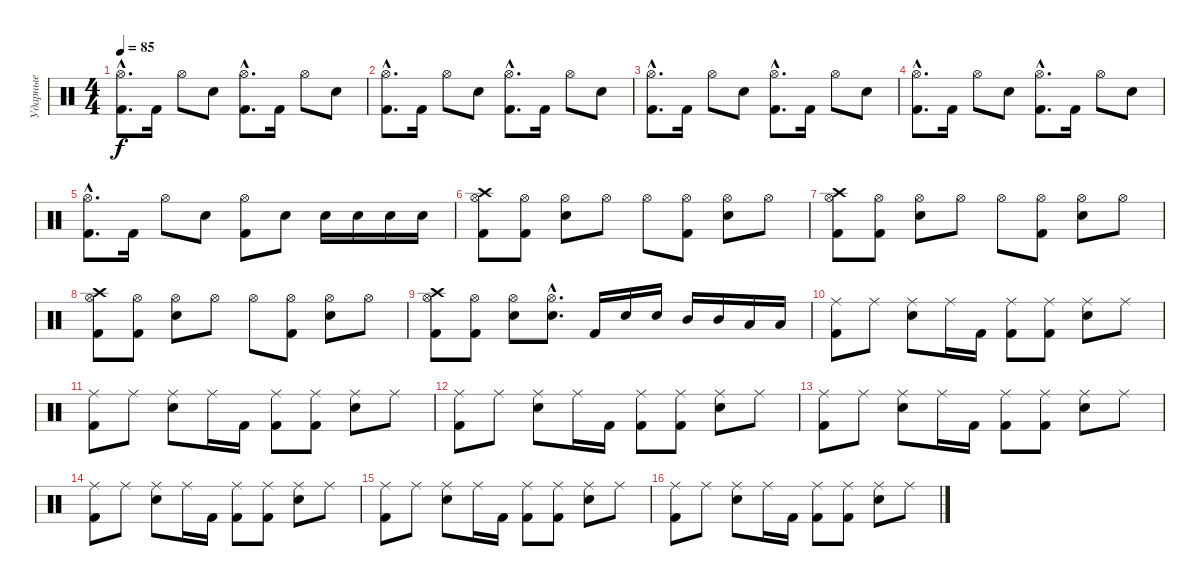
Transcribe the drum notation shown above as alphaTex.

\track ("Ударные" "Ударные") {instrument percussion}
\staff {score}
\articulation defaults
\ts (4 4)
\tempo 85
\clef neutral
\ks c
("Hi-Hat (open)"{hac} "Kick (hit) 2"{hac}).8{d dy f} "Kick (hit) 2".16 "Hi-Hat (open)".8 "Snare (hit) 2".8 ("Hi-Hat (open)"{hac} "Kick (hit) 2"{hac}).8{d} "Kick (hit) 2".16 "Hi-Hat (open)".8 "Snare (hit) 2".8 |
("Hi-Hat (open)"{hac} "Kick (hit) 2"{hac}).8{d} "Kick (hit) 2".16 "Hi-Hat (open)".8 "Snare (hit) 2".8 ("Hi-Hat (open)"{hac} "Kick (hit) 2"{hac}).8{d} "Kick (hit) 2".16 "Hi-Hat (open)".8 "Snare (hit) 2".8 |
("Hi-Hat (open)"{hac} "Kick (hit) 2"{hac}).8{d} "Kick (hit) 2".16 "Hi-Hat (open)".8 "Snare (hit) 2".8 ("Hi-Hat (open)"{hac} "Kick (hit) 2"{hac}).8{d} "Kick (hit) 2".16 "Hi-Hat (open)".8 "Snare (hit) 2".8 |
("Hi-Hat (open)"{hac} "Kick (hit) 2"{hac}).8{d} "Kick (hit) 2".16 "Hi-Hat (open)".8 "Snare (hit) 2".8 ("Hi-Hat (open)"{hac} "Kick (hit) 2"{hac}).8{d} "Kick (hit) 2".16 "Hi-Hat (open)".8 "Snare (hit) 2".8 |
("Hi-Hat (open)"{hac} "Kick (hit) 2"{hac}).8{d} "Kick (hit) 2".16 "Hi-Hat (open)".8 "Snare (hit) 2".8 ("Hi-Hat (open)" "Kick (hit) 2").8 "Snare (hit) 2".8 "Snare (hit) 2".16 "Snare (hit) 2".16 "Snare (hit) 2".16 "Snare (hit) 2".16 |
("Hi-Hat (open)" "Crash high (hit)" "Kick (hit) 2").8 ("Hi-Hat (open)" "Kick (hit) 2").8 ("Hi-Hat (open)" "Snare (hit) 2").8 "Hi-Hat (open)".8 "Hi-Hat (open)".8 ("Hi-Hat (open)" "Kick (hit) 2").8 ("Hi-Hat (open)" "Snare (hit) 2").8 "Hi-Hat (open)".8 |
("Hi-Hat (open)" "Crash high (hit)" "Kick (hit) 2").8 ("Hi-Hat (open)" "Kick (hit) 2").8 ("Hi-Hat (open)" "Snare (hit) 2").8 "Hi-Hat (open)".8 "Hi-Hat (open)".8 ("Hi-Hat (open)" "Kick (hit) 2").8 ("Hi-Hat (open)" "Snare (hit) 2").8 "Hi-Hat (open)".8 |
("Hi-Hat (open)" "Crash high (hit)" "Kick (hit) 2").8 ("Hi-Hat (open)" "Kick (hit) 2").8 ("Hi-Hat (open)" "Snare (hit) 2").8 "Hi-Hat (open)".8 "Hi-Hat (open)".8 ("Hi-Hat (open)" "Kick (hit) 2").8 ("Hi-Hat (open)" "Snare (hit) 2").8 "Hi-Hat (open)".8 |
("Hi-Hat (open)" "Crash high (hit)" "Kick (hit) 2").8 ("Hi-Hat (open)" "Kick (hit) 2").8 ("Hi-Hat (open)" "Snare (hit) 2").8 ("Hi-Hat (open)"{hac} "Snare (hit) 2"{hac}).8{d} "Kick (hit) 2".16 "Snare (hit) 2".16 "Snare (hit) 2".16 "Mid Tom (hit)".16 "Mid Tom (hit)".16 "Low Tom (hit)".16 "Low Tom (hit)".16 |
("Ride (middle)" "Kick (hit) 2").8 "Ride (middle)".8 ("Ride (middle)" "Snare (hit) 2").8 "Ride (middle)".16 "Kick (hit) 2".16 ("Ride (middle)" "Kick (hit) 2").8 ("Ride (middle)" "Kick (hit) 2").8 ("Ride (middle)" "Snare (hit) 2").8 "Ride (middle)".8 |
("Ride (middle)" "Kick (hit) 2").8 "Ride (middle)".8 ("Ride (middle)" "Snare (hit) 2").8 "Ride (middle)".16 "Kick (hit) 2".16 ("Ride (middle)" "Kick (hit) 2").8 ("Ride (middle)" "Kick (hit) 2").8 ("Ride (middle)" "Snare (hit) 2").8 "Ride (middle)".8 |
("Ride (middle)" "Kick (hit) 2").8 "Ride (middle)".8 ("Ride (middle)" "Snare (hit) 2").8 "Ride (middle)".16 "Kick (hit) 2".16 ("Ride (middle)" "Kick (hit) 2").8 ("Ride (middle)" "Kick (hit) 2").8 ("Ride (middle)" "Snare (hit) 2").8 "Ride (middle)".8 |
("Ride (middle)" "Kick (hit) 2").8 "Ride (middle)".8 ("Ride (middle)" "Snare (hit) 2").8 "Ride (middle)".16 "Kick (hit) 2".16 ("Ride (middle)" "Kick (hit) 2").8 ("Ride (middle)" "Kick (hit) 2").8 ("Ride (middle)" "Snare (hit) 2").8 "Ride (middle)".8 |
("Ride (middle)" "Kick (hit) 2").8 "Ride (middle)".8 ("Ride (middle)" "Snare (hit) 2").8 "Ride (middle)".16 "Kick (hit) 2".16 ("Ride (middle)" "Kick (hit) 2").8 ("Ride (middle)" "Kick (hit) 2").8 ("Ride (middle)" "Snare (hit) 2").8 "Ride (middle)".8 |
("Ride (middle)" "Kick (hit) 2").8 "Ride (middle)".8 ("Ride (middle)" "Snare (hit) 2").8 "Ride (middle)".16 "Kick (hit) 2".16 ("Ride (middle)" "Kick (hit) 2").8 ("Ride (middle)" "Kick (hit) 2").8 ("Ride (middle)" "Snare (hit) 2").8 "Ride (middle)".8 |
("Ride (middle)" "Kick (hit) 2").8 "Ride (middle)".8 ("Ride (middle)" "Snare (hit) 2").8 "Ride (middle)".16 "Kick (hit) 2".16 ("Ride (middle)" "Kick (hit) 2").8 ("Ride (middle)" "Kick (hit) 2").8 ("Ride (middle)" "Snare (hit) 2").8 "Ride (middle)".8
